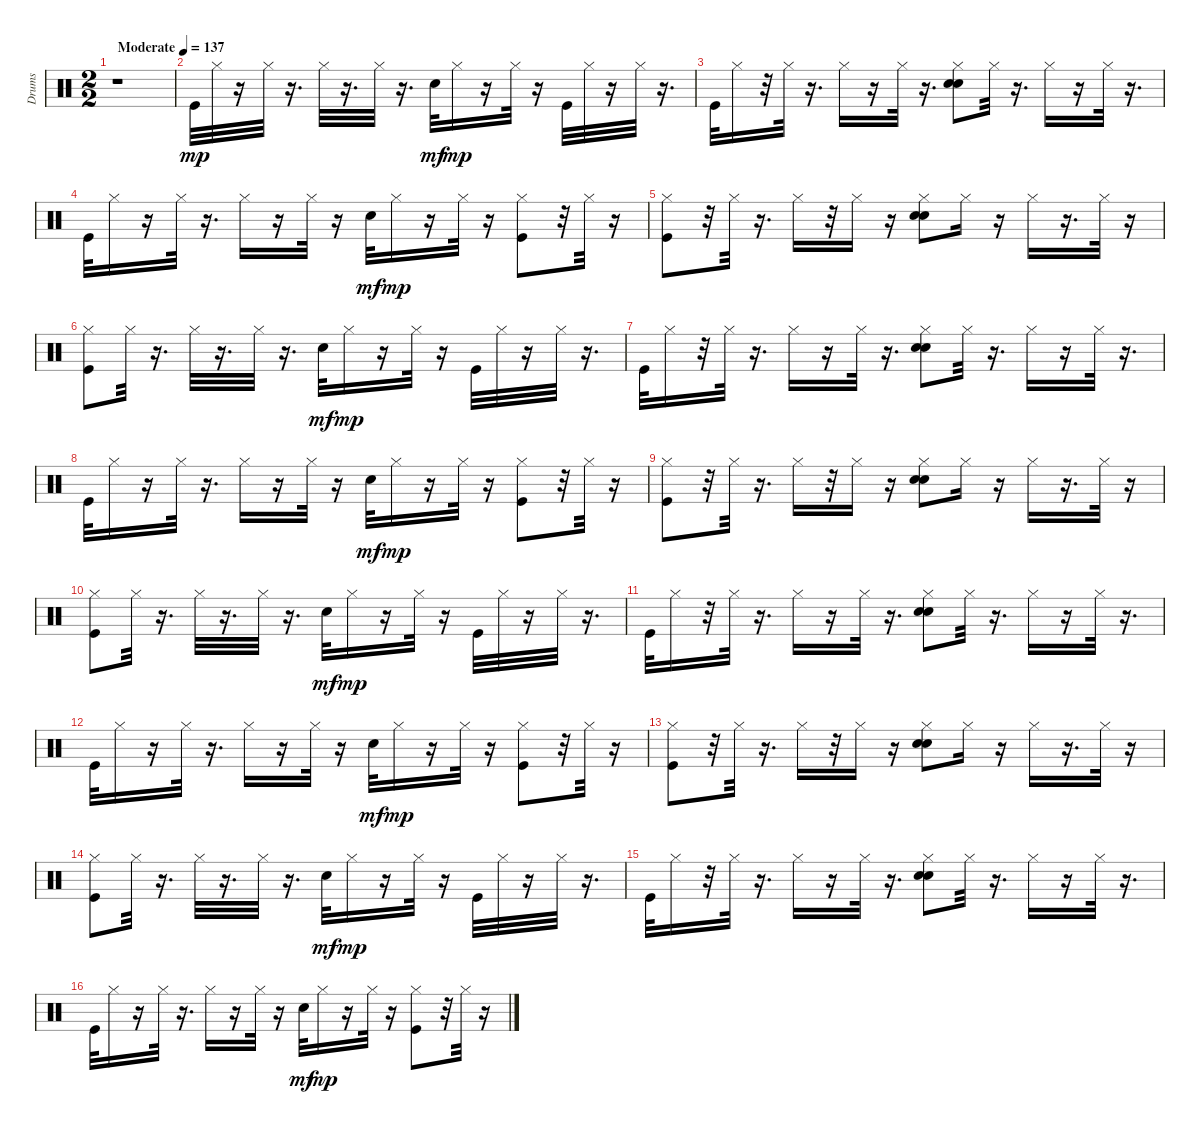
\track ("Drums" "Drums") {instrument percussion}
\staff {score}
\articulation defaults
\ts (2 2)
\tempo (137 "Moderate")
\clef neutral
\ks c
r.1{dy mp} |
"Kick (hit)".32 "Hi-Hat (closed)".32 r.16 "Hi-Hat (closed)".32 r.16{d} "Hi-Hat (closed)".32 r.16{d} "Hi-Hat (closed)".32 r.16{d} "Snare (hit) 2".32{dy mf} "Hi-Hat (closed)".16{dy mp} r.16 "Hi-Hat (closed)".32 r.16 "Kick (hit)".32 "Hi-Hat (closed)".32 r.16 "Hi-Hat (closed)".32 r.16{d} |
"Kick (hit)".32 "Hi-Hat (closed)".16 r.32 "Hi-Hat (closed)".32 r.16{d} "Hi-Hat (closed)".16 r.16 "Hi-Hat (closed)".32 r.16{d} ("Snare (hit) 2" "Hand Clap (hit)" "Hi-Hat (closed)").8 "Hi-Hat (closed)".32 r.16{d} "Hi-Hat (closed)".16 r.16 "Hi-Hat (closed)".32 r.16{d} |
"Kick (hit)".32 "Hi-Hat (closed)".16 r.16 "Hi-Hat (closed)".32 r.16{d} "Hi-Hat (closed)".16 r.16 "Hi-Hat (closed)".32 r.16 "Snare (hit) 2".32{dy mf} "Hi-Hat (closed)".16{dy mp} r.16 "Hi-Hat (closed)".32 r.16 ("Kick (hit)" "Hi-Hat (closed)").8 r.32 "Hi-Hat (closed)".32 r.16 |
("Kick (hit)" "Hi-Hat (closed)").8 r.32 "Hi-Hat (closed)".32 r.16{d} "Hi-Hat (closed)".16 r.32 "Hi-Hat (closed)".16 r.16 ("Snare (hit) 2" "Hand Clap (hit)" "Hi-Hat (closed)").8 "Hi-Hat (closed)".16 r.16 "Hi-Hat (closed)".16 r.16{d} "Hi-Hat (closed)".32 r.16 |
("Kick (hit)" "Hi-Hat (closed)").8 "Hi-Hat (closed)".32 r.16{d} "Hi-Hat (closed)".32 r.16{d} "Hi-Hat (closed)".32 r.16{d} "Snare (hit) 2".32{dy mf} "Hi-Hat (closed)".16{dy mp} r.16 "Hi-Hat (closed)".32 r.16 "Kick (hit)".32 "Hi-Hat (closed)".32 r.16 "Hi-Hat (closed)".32 r.16{d} |
"Kick (hit)".32 "Hi-Hat (closed)".16 r.32 "Hi-Hat (closed)".32 r.16{d} "Hi-Hat (closed)".16 r.16 "Hi-Hat (closed)".32 r.16{d} ("Snare (hit) 2" "Hand Clap (hit)" "Hi-Hat (closed)").8 "Hi-Hat (closed)".32 r.16{d} "Hi-Hat (closed)".16 r.16 "Hi-Hat (closed)".32 r.16{d} |
"Kick (hit)".32 "Hi-Hat (closed)".16 r.16 "Hi-Hat (closed)".32 r.16{d} "Hi-Hat (closed)".16 r.16 "Hi-Hat (closed)".32 r.16 "Snare (hit) 2".32{dy mf} "Hi-Hat (closed)".16{dy mp} r.16 "Hi-Hat (closed)".32 r.16 ("Kick (hit)" "Hi-Hat (closed)").8 r.32 "Hi-Hat (closed)".32 r.16 |
("Kick (hit)" "Hi-Hat (closed)").8 r.32 "Hi-Hat (closed)".32 r.16{d} "Hi-Hat (closed)".16 r.32 "Hi-Hat (closed)".16 r.16 ("Snare (hit) 2" "Hand Clap (hit)" "Hi-Hat (closed)").8 "Hi-Hat (closed)".16 r.16 "Hi-Hat (closed)".16 r.16{d} "Hi-Hat (closed)".32 r.16 |
("Kick (hit)" "Hi-Hat (closed)").8 "Hi-Hat (closed)".32 r.16{d} "Hi-Hat (closed)".32 r.16{d} "Hi-Hat (closed)".32 r.16{d} "Snare (hit) 2".32{dy mf} "Hi-Hat (closed)".16{dy mp} r.16 "Hi-Hat (closed)".32 r.16 "Kick (hit)".32 "Hi-Hat (closed)".32 r.16 "Hi-Hat (closed)".32 r.16{d} |
"Kick (hit)".32 "Hi-Hat (closed)".16 r.32 "Hi-Hat (closed)".32 r.16{d} "Hi-Hat (closed)".16 r.16 "Hi-Hat (closed)".32 r.16{d} ("Snare (hit) 2" "Hand Clap (hit)" "Hi-Hat (closed)").8 "Hi-Hat (closed)".32 r.16{d} "Hi-Hat (closed)".16 r.16 "Hi-Hat (closed)".32 r.16{d} |
"Kick (hit)".32 "Hi-Hat (closed)".16 r.16 "Hi-Hat (closed)".32 r.16{d} "Hi-Hat (closed)".16 r.16 "Hi-Hat (closed)".32 r.16 "Snare (hit) 2".32{dy mf} "Hi-Hat (closed)".16{dy mp} r.16 "Hi-Hat (closed)".32 r.16 ("Kick (hit)" "Hi-Hat (closed)").8 r.32 "Hi-Hat (closed)".32 r.16 |
("Kick (hit)" "Hi-Hat (closed)").8 r.32 "Hi-Hat (closed)".32 r.16{d} "Hi-Hat (closed)".16 r.32 "Hi-Hat (closed)".16 r.16 ("Snare (hit) 2" "Hand Clap (hit)" "Hi-Hat (closed)").8 "Hi-Hat (closed)".16 r.16 "Hi-Hat (closed)".16 r.16{d} "Hi-Hat (closed)".32 r.16 |
("Kick (hit)" "Hi-Hat (closed)").8 "Hi-Hat (closed)".32 r.16{d} "Hi-Hat (closed)".32 r.16{d} "Hi-Hat (closed)".32 r.16{d} "Snare (hit) 2".32{dy mf} "Hi-Hat (closed)".16{dy mp} r.16 "Hi-Hat (closed)".32 r.16 "Kick (hit)".32 "Hi-Hat (closed)".32 r.16 "Hi-Hat (closed)".32 r.16{d} |
"Kick (hit)".32 "Hi-Hat (closed)".16 r.32 "Hi-Hat (closed)".32 r.16{d} "Hi-Hat (closed)".16 r.16 "Hi-Hat (closed)".32 r.16{d} ("Snare (hit) 2" "Hand Clap (hit)" "Hi-Hat (closed)").8 "Hi-Hat (closed)".32 r.16{d} "Hi-Hat (closed)".16 r.16 "Hi-Hat (closed)".32 r.16{d} |
"Kick (hit)".32 "Hi-Hat (closed)".16 r.16 "Hi-Hat (closed)".32 r.16{d} "Hi-Hat (closed)".16 r.16 "Hi-Hat (closed)".32 r.16 "Snare (hit) 2".32{dy mf} "Hi-Hat (closed)".16{dy mp} r.16 "Hi-Hat (closed)".32 r.16 ("Kick (hit)" "Hi-Hat (closed)").8 r.32 "Hi-Hat (closed)".32 r.16
